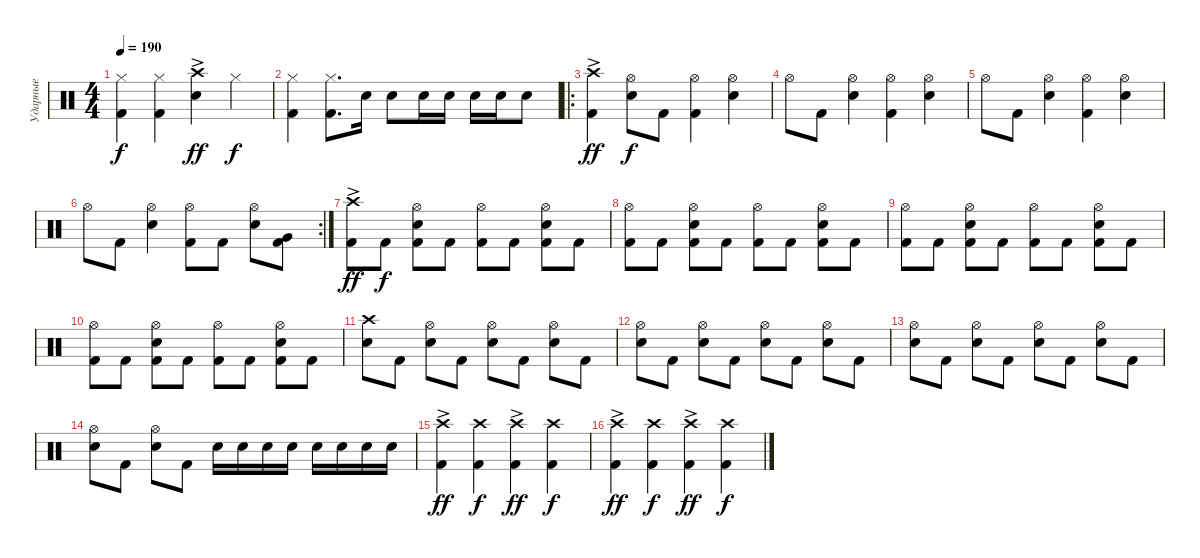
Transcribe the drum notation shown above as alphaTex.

\track ("Ударные" "Ударные") {instrument percussion}
\staff {score}
\articulation defaults
\ts (4 4)
\tempo 190
\clef neutral
\ks c
("Kick (hit) 2" "Hi-Hat (closed)").4{dy f} ("Kick (hit) 2" "Hi-Hat (closed)").4 ("Snare (hit) 2" "Crash high (hit)"{ac}).4{dy ff} "Hi-Hat (closed)".4{dy f} |
("Kick (hit) 2" "Hi-Hat (closed)").4 ("Kick (hit) 2" "Hi-Hat (closed)").8{d} "Snare (hit) 2".16 "Snare (hit) 2".8 "Snare (hit) 2".16 "Snare (hit) 2".16 "Snare (hit) 2".16 "Snare (hit) 2".16 "Snare (hit) 2".8 |
\ro
("Kick (hit) 2" "Crash high (hit)"{ac}).4{dy ff} ("Snare (hit) 2" "Hi-Hat (open)").8{dy f} "Kick (hit) 2".8 ("Kick (hit) 2" "Hi-Hat (open)").4 ("Snare (hit) 2" "Hi-Hat (open)").4 |
"Hi-Hat (open)".8 "Kick (hit) 2".8 ("Snare (hit) 2" "Hi-Hat (open)").4 ("Kick (hit) 2" "Hi-Hat (open)").4 ("Snare (hit) 2" "Hi-Hat (open)").4 |
"Hi-Hat (open)".8 "Kick (hit) 2".8 ("Snare (hit) 2" "Hi-Hat (open)").4 ("Kick (hit) 2" "Hi-Hat (open)").4 ("Snare (hit) 2" "Hi-Hat (open)").4 |
\rc 2 "Hi-Hat (open)".8 "Kick (hit) 2".8
("Snare (hit) 2" "Hi-Hat (open)").4 ("Kick (hit) 2" "Hi-Hat (open)").8 "Kick (hit) 2".8 ("Snare (hit) 2" "Hi-Hat (open)").8 ("Kick (hit) 2" "Very Low Tom (hit)").8 |
("Kick (hit) 2" "Crash high (hit)"{ac}).8{dy ff} "Kick (hit) 2".8{dy f} ("Kick (hit) 2" "Snare (hit) 2" "Hi-Hat (open)").8 "Kick (hit) 2".8 ("Kick (hit) 2" "Hi-Hat (open)").8 "Kick (hit) 2".8 ("Kick (hit) 2" "Snare (hit) 2" "Hi-Hat (open)").8 "Kick (hit) 2".8 |
("Kick (hit) 2" "Hi-Hat (open)").8 "Kick (hit) 2".8 ("Kick (hit) 2" "Snare (hit) 2" "Hi-Hat (open)").8 "Kick (hit) 2".8 ("Kick (hit) 2" "Hi-Hat (open)").8 "Kick (hit) 2".8 ("Kick (hit) 2" "Snare (hit) 2" "Hi-Hat (open)").8 "Kick (hit) 2".8 |
("Kick (hit) 2" "Hi-Hat (open)").8 "Kick (hit) 2".8 ("Kick (hit) 2" "Snare (hit) 2" "Hi-Hat (open)").8 "Kick (hit) 2".8 ("Kick (hit) 2" "Hi-Hat (open)").8 "Kick (hit) 2".8 ("Kick (hit) 2" "Snare (hit) 2" "Hi-Hat (open)").8 "Kick (hit) 2".8 |
("Kick (hit) 2" "Hi-Hat (open)").8 "Kick (hit) 2".8 ("Kick (hit) 2" "Snare (hit) 2" "Hi-Hat (open)").8 "Kick (hit) 2".8 ("Kick (hit) 2" "Hi-Hat (open)").8 "Kick (hit) 2".8 ("Kick (hit) 2" "Snare (hit) 2" "Hi-Hat (open)").8 "Kick (hit) 2".8 |
("Snare (hit) 2" "Crash high (hit)").8 "Kick (hit) 2".8 ("Snare (hit) 2" "Hi-Hat (open)").8 "Kick (hit) 2".8 ("Snare (hit) 2" "Hi-Hat (open)").8 "Kick (hit) 2".8 ("Snare (hit) 2" "Hi-Hat (open)").8 "Kick (hit) 2".8 |
("Snare (hit) 2" "Hi-Hat (open)").8 "Kick (hit) 2".8 ("Snare (hit) 2" "Hi-Hat (open)").8 "Kick (hit) 2".8 ("Snare (hit) 2" "Hi-Hat (open)").8 "Kick (hit) 2".8 ("Snare (hit) 2" "Hi-Hat (open)").8 "Kick (hit) 2".8 |
("Snare (hit) 2" "Hi-Hat (open)").8 "Kick (hit) 2".8 ("Snare (hit) 2" "Hi-Hat (open)").8 "Kick (hit) 2".8 ("Snare (hit) 2" "Hi-Hat (open)").8 "Kick (hit) 2".8 ("Snare (hit) 2" "Hi-Hat (open)").8 "Kick (hit) 2".8 |
("Snare (hit) 2" "Hi-Hat (open)").8 "Kick (hit) 2".8 ("Snare (hit) 2" "Hi-Hat (open)").8 "Kick (hit) 2".8 "Snare (hit) 2".16 "Snare (hit) 2".16 "Snare (hit) 2".16 "Snare (hit) 2".16 "Snare (hit) 2".16 "Snare (hit) 2".16 "Snare (hit) 2".16 "Snare (hit) 2".16 |
("Kick (hit) 2" "Crash high (hit)"{ac}).4{dy ff} ("Kick (hit) 2" "Crash high (hit)").4{dy f} ("Kick (hit) 2" "Crash high (hit)"{ac}).4{dy ff} ("Kick (hit) 2" "Crash high (hit)").4{dy f} |
("Kick (hit) 2" "Crash high (hit)"{ac}).4{dy ff} ("Kick (hit) 2" "Crash high (hit)").4{dy f} ("Kick (hit) 2" "Crash high (hit)"{ac}).4{dy ff} ("Kick (hit) 2" "Crash high (hit)").4{dy f}
